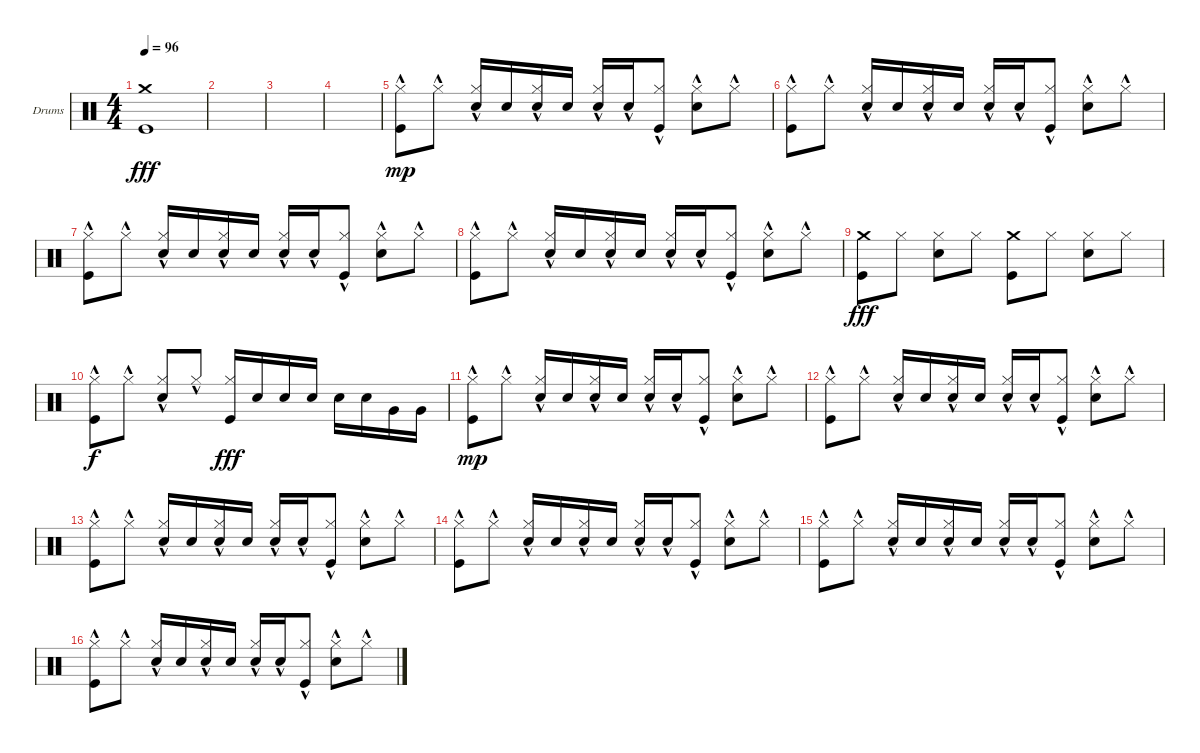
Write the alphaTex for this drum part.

\defaultSystemsLayout 4
\bracketExtendMode groupsimilarinstruments
\firstSystemTrackNameOrientation horizontal
\otherSystemsTrackNameOrientation horizontal
\track ("Drumkit" "Drums") {instrument percussion}
\staff {score}
\articulation defaults
\ts (4 4)
\tempo 96
\clef neutral
\ks c
("Kick (hit)" "Crash medium (hit)").1{dy fff} |
|
|
|
("Kick (hit)"{hac} "Hi-Hat (closed)"{hac}).8{dy mp} "Hi-Hat (closed)"{hac}.8 ("Hi-Hat (closed)"{hac} "Snare (hit) 2"{hac}).16 "Snare (hit) 2".16 ("Snare (hit) 2" "Hi-Hat (closed)"{hac}).16 "Snare (hit) 2".16 ("Hi-Hat (closed)"{hac} "Snare (hit) 2").16{beam invert} "Snare (hit) 2"{hac}.16 ("Hi-Hat (closed)"{hac} "Kick (hit)"{hac}).8 ("Snare (hit) 2"{hac} "Hi-Hat (closed)"{hac}).8 "Hi-Hat (closed)"{hac}.8 |
("Kick (hit)"{hac} "Hi-Hat (closed)"{hac}).8 "Hi-Hat (closed)"{hac}.8 ("Hi-Hat (closed)"{hac} "Snare (hit) 2"{hac}).16 "Snare (hit) 2".16 ("Snare (hit) 2" "Hi-Hat (closed)"{hac}).16 "Snare (hit) 2".16 ("Hi-Hat (closed)"{hac} "Snare (hit) 2").16{beam invert} "Snare (hit) 2"{hac}.16 ("Hi-Hat (closed)"{hac} "Kick (hit)"{hac}).8 ("Snare (hit) 2"{hac} "Hi-Hat (closed)"{hac}).8 "Hi-Hat (closed)"{hac}.8 |
("Kick (hit)"{hac} "Hi-Hat (closed)"{hac}).8 "Hi-Hat (closed)"{hac}.8 ("Hi-Hat (closed)"{hac} "Snare (hit) 2"{hac}).16 "Snare (hit) 2".16 ("Snare (hit) 2" "Hi-Hat (closed)"{hac}).16 "Snare (hit) 2".16 ("Hi-Hat (closed)"{hac} "Snare (hit) 2").16{beam invert} "Snare (hit) 2"{hac}.16 ("Hi-Hat (closed)"{hac} "Kick (hit)"{hac}).8 ("Snare (hit) 2"{hac} "Hi-Hat (closed)"{hac}).8 "Hi-Hat (closed)"{hac}.8 |
("Kick (hit)"{hac} "Hi-Hat (closed)"{hac}).8 "Hi-Hat (closed)"{hac}.8 ("Hi-Hat (closed)"{hac} "Snare (hit) 2"{hac}).16 "Snare (hit) 2".16 ("Snare (hit) 2" "Hi-Hat (closed)"{hac}).16 "Snare (hit) 2".16 ("Hi-Hat (closed)"{hac} "Snare (hit) 2").16{beam invert} "Snare (hit) 2"{hac}.16 ("Hi-Hat (closed)"{hac} "Kick (hit)"{hac}).8 ("Snare (hit) 2"{hac} "Hi-Hat (closed)"{hac}).8 "Hi-Hat (closed)"{hac}.8 |
("Crash medium (hit)" "Kick (hit)").8{dy fff} "Hi-Hat (closed)".8 ("Hi-Hat (closed)" "Snare (hit) 2").8 "Hi-Hat (closed)".8 ("Crash medium (hit)" "Kick (hit)").8 "Hi-Hat (closed)".8 ("Hi-Hat (closed)" "Snare (hit) 2").8 "Hi-Hat (closed)".8 |
("Hi-Hat (closed)"{hac} "Kick (hit)"{hac}).8{dy f} "Hi-Hat (closed)"{hac}.8 ("Hi-Hat (closed)"{hac} "Snare (hit) 2").8 "Hi-Hat (closed)"{hac}.8 ("Kick (hit)" "Hi-Hat (closed)").16{dy fff beam invert} "Snare (hit) 2".16 "Snare (hit) 2".16 "Snare (hit) 2".16 "Snare (hit) 2".16{beam invert} "Snare (hit) 2".16 "Very Low Tom (hit)".16 "Very Low Tom (hit)".16 |
("Kick (hit)"{hac} "Hi-Hat (closed)"{hac}).8{dy mp} "Hi-Hat (closed)"{hac}.8 ("Hi-Hat (closed)"{hac} "Snare (hit) 2"{hac}).16 "Snare (hit) 2".16 ("Snare (hit) 2" "Hi-Hat (closed)"{hac}).16 "Snare (hit) 2".16 ("Hi-Hat (closed)"{hac} "Snare (hit) 2").16{beam invert} "Snare (hit) 2"{hac}.16 ("Hi-Hat (closed)"{hac} "Kick (hit)"{hac}).8 ("Snare (hit) 2"{hac} "Hi-Hat (closed)"{hac}).8 "Hi-Hat (closed)"{hac}.8 |
("Kick (hit)"{hac} "Hi-Hat (closed)"{hac}).8 "Hi-Hat (closed)"{hac}.8 ("Hi-Hat (closed)"{hac} "Snare (hit) 2"{hac}).16 "Snare (hit) 2".16 ("Snare (hit) 2" "Hi-Hat (closed)"{hac}).16 "Snare (hit) 2".16 ("Hi-Hat (closed)"{hac} "Snare (hit) 2").16{beam invert} "Snare (hit) 2"{hac}.16 ("Hi-Hat (closed)"{hac} "Kick (hit)"{hac}).8 ("Snare (hit) 2"{hac} "Hi-Hat (closed)"{hac}).8 "Hi-Hat (closed)"{hac}.8 |
("Kick (hit)"{hac} "Hi-Hat (closed)"{hac}).8 "Hi-Hat (closed)"{hac}.8 ("Hi-Hat (closed)"{hac} "Snare (hit) 2"{hac}).16 "Snare (hit) 2".16 ("Snare (hit) 2" "Hi-Hat (closed)"{hac}).16 "Snare (hit) 2".16 ("Hi-Hat (closed)"{hac} "Snare (hit) 2").16{beam invert} "Snare (hit) 2"{hac}.16 ("Hi-Hat (closed)"{hac} "Kick (hit)"{hac}).8 ("Snare (hit) 2"{hac} "Hi-Hat (closed)"{hac}).8 "Hi-Hat (closed)"{hac}.8 |
("Kick (hit)"{hac} "Hi-Hat (closed)"{hac}).8 "Hi-Hat (closed)"{hac}.8 ("Hi-Hat (closed)"{hac} "Snare (hit) 2"{hac}).16 "Snare (hit) 2".16 ("Snare (hit) 2" "Hi-Hat (closed)"{hac}).16 "Snare (hit) 2".16 ("Hi-Hat (closed)"{hac} "Snare (hit) 2").16{beam invert} "Snare (hit) 2"{hac}.16 ("Hi-Hat (closed)"{hac} "Kick (hit)"{hac}).8 ("Snare (hit) 2"{hac} "Hi-Hat (closed)"{hac}).8 "Hi-Hat (closed)"{hac}.8 |
("Kick (hit)"{hac} "Hi-Hat (closed)"{hac}).8 "Hi-Hat (closed)"{hac}.8 ("Hi-Hat (closed)"{hac} "Snare (hit) 2"{hac}).16 "Snare (hit) 2".16 ("Snare (hit) 2" "Hi-Hat (closed)"{hac}).16 "Snare (hit) 2".16 ("Hi-Hat (closed)"{hac} "Snare (hit) 2").16{beam invert} "Snare (hit) 2"{hac}.16 ("Hi-Hat (closed)"{hac} "Kick (hit)"{hac}).8 ("Snare (hit) 2"{hac} "Hi-Hat (closed)"{hac}).8 "Hi-Hat (closed)"{hac}.8 |
("Kick (hit)"{hac} "Hi-Hat (closed)"{hac}).8 "Hi-Hat (closed)"{hac}.8 ("Hi-Hat (closed)"{hac} "Snare (hit) 2"{hac}).16 "Snare (hit) 2".16 ("Snare (hit) 2" "Hi-Hat (closed)"{hac}).16 "Snare (hit) 2".16 ("Hi-Hat (closed)"{hac} "Snare (hit) 2").16{beam invert} "Snare (hit) 2"{hac}.16 ("Hi-Hat (closed)"{hac} "Kick (hit)"{hac}).8 ("Snare (hit) 2"{hac} "Hi-Hat (closed)"{hac}).8 "Hi-Hat (closed)"{hac}.8
